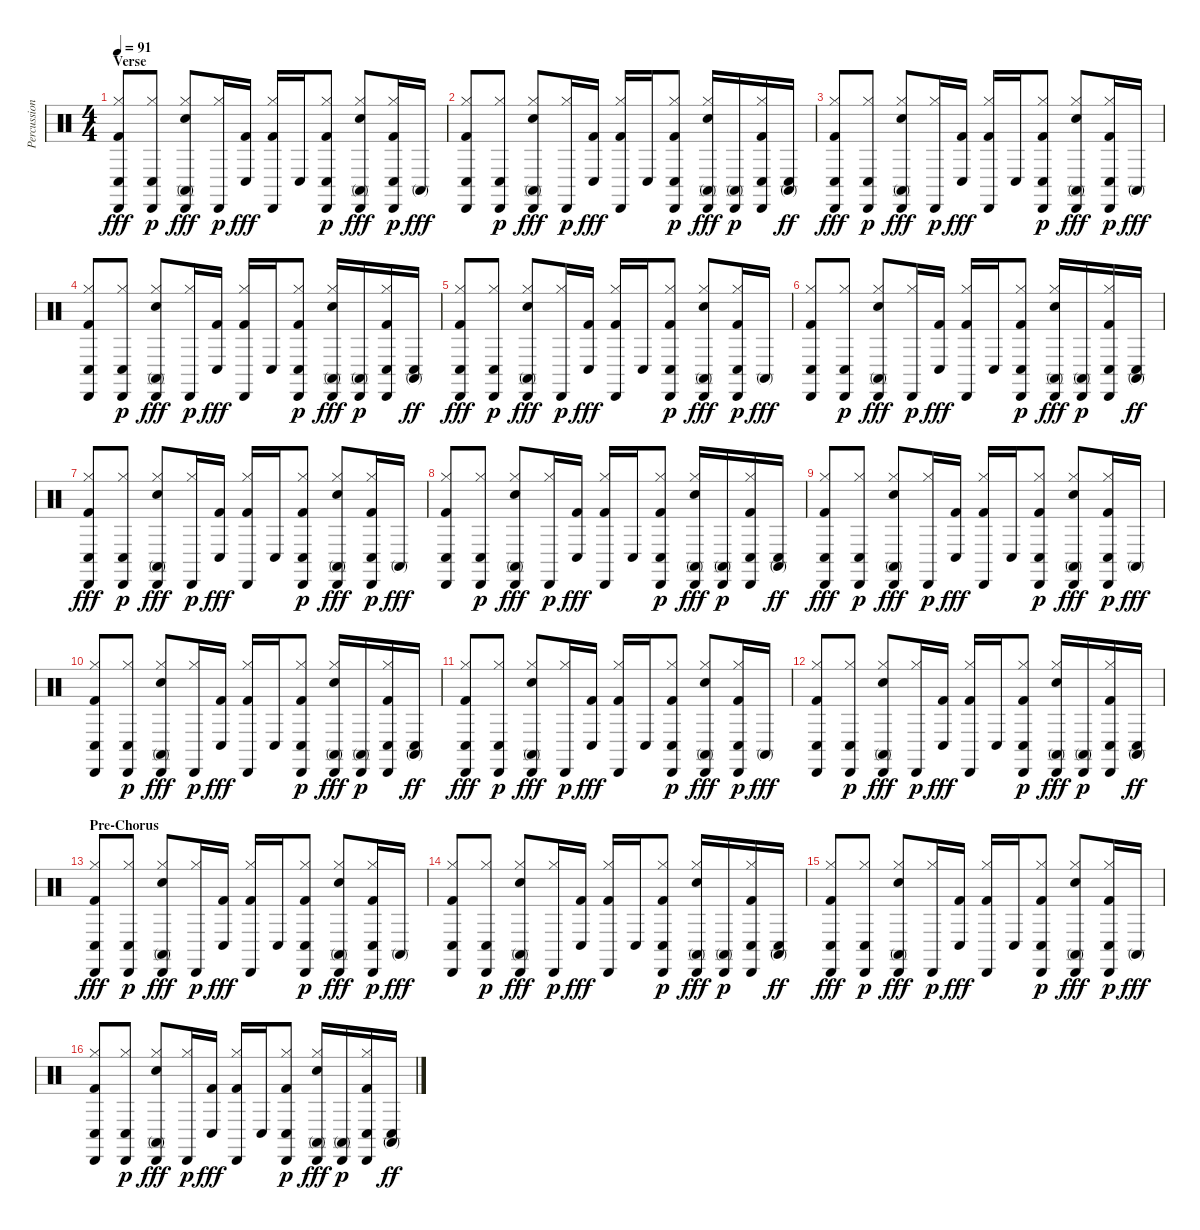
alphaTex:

\track ("Percussion" "Percussion") {instrument percussion}
\staff {score}
\articulation defaults
\ts (4 4)
\section ("" "Verse")
\tempo 91
\clef neutral
\ks c
("Kick (hit) 2" "Hi-Hat (closed)" "Conga low (hit)" "Cabasa (hit)").8{dy fff} ("Hi-Hat (closed)" "Conga low (hit)" "Cabasa (hit)").8{dy p} ("Snare (hit) 2" "Hi-Hat (closed)" "Conga high (mute)" "Cabasa (hit)").8{dy fff} ("Hi-Hat (closed)" "Cabasa (hit)").16{dy p} ("Kick (hit) 2" "Conga low (hit)").16{dy fff} ("Kick (hit) 2" "Hi-Hat (closed)" "Cabasa (hit)").16 "Conga low (hit)".16 ("Kick (hit) 2" "Hi-Hat (closed)" "Conga low (hit)" "Cabasa (hit)").8{dy p} ("Snare (hit) 2" "Hi-Hat (closed)" "Conga high (mute)" "Cabasa (hit)").8{dy fff} ("Kick (hit) 2" "Hi-Hat (closed)" "Conga low (hit)" "Cabasa (hit)").16{dy p} "Conga high (mute)".16{dy fff} |
("Kick (hit) 2" "Hi-Hat (closed)" "Conga low (hit)" "Cabasa (hit)").8 ("Hi-Hat (closed)" "Conga low (hit)" "Cabasa (hit)").8{dy p} ("Snare (hit) 2" "Hi-Hat (closed)" "Conga high (mute)" "Cabasa (hit)").8{dy fff} ("Hi-Hat (closed)" "Cabasa (hit)").16{dy p} ("Kick (hit) 2" "Conga low (hit)").16{dy fff} ("Kick (hit) 2" "Hi-Hat (closed)" "Cabasa (hit)").16 "Conga low (hit)".16 ("Kick (hit) 2" "Hi-Hat (closed)" "Conga low (hit)" "Cabasa (hit)").8{dy p} ("Snare (hit) 2" "Hi-Hat (closed)" "Conga high (mute)" "Cabasa (hit)").16{dy fff} ("Conga high (mute)" "Cabasa (hit)").16{dy p} ("Kick (hit) 2" "Hi-Hat (closed)" "Conga low (hit)" "Cabasa (hit)").16 ("Conga high (mute)" "Conga low (hit)").16{dy ff} |
("Kick (hit) 2" "Hi-Hat (closed)" "Conga low (hit)" "Cabasa (hit)").8{dy fff} ("Hi-Hat (closed)" "Conga low (hit)" "Cabasa (hit)").8{dy p} ("Snare (hit) 2" "Hi-Hat (closed)" "Conga high (mute)" "Cabasa (hit)").8{dy fff} ("Hi-Hat (closed)" "Cabasa (hit)").16{dy p} ("Kick (hit) 2" "Conga low (hit)").16{dy fff} ("Kick (hit) 2" "Hi-Hat (closed)" "Cabasa (hit)").16 "Conga low (hit)".16 ("Kick (hit) 2" "Hi-Hat (closed)" "Conga low (hit)" "Cabasa (hit)").8{dy p} ("Snare (hit) 2" "Hi-Hat (closed)" "Conga high (mute)" "Cabasa (hit)").8{dy fff} ("Kick (hit) 2" "Hi-Hat (closed)" "Conga low (hit)" "Cabasa (hit)").16{dy p} "Conga high (mute)".16{dy fff} |
("Kick (hit) 2" "Hi-Hat (closed)" "Conga low (hit)" "Cabasa (hit)").8 ("Hi-Hat (closed)" "Conga low (hit)" "Cabasa (hit)").8{dy p} ("Snare (hit) 2" "Hi-Hat (closed)" "Conga high (mute)" "Cabasa (hit)").8{dy fff} ("Hi-Hat (closed)" "Cabasa (hit)").16{dy p} ("Kick (hit) 2" "Conga low (hit)").16{dy fff} ("Kick (hit) 2" "Hi-Hat (closed)" "Cabasa (hit)").16 "Conga low (hit)".16 ("Kick (hit) 2" "Hi-Hat (closed)" "Conga low (hit)" "Cabasa (hit)").8{dy p} ("Snare (hit) 2" "Hi-Hat (closed)" "Conga high (mute)" "Cabasa (hit)").16{dy fff} ("Conga high (mute)" "Cabasa (hit)").16{dy p} ("Kick (hit) 2" "Hi-Hat (closed)" "Conga low (hit)" "Cabasa (hit)").16 ("Conga high (mute)" "Conga low (hit)").16{dy ff} |
("Kick (hit) 2" "Hi-Hat (closed)" "Conga low (hit)" "Cabasa (hit)").8{dy fff} ("Hi-Hat (closed)" "Conga low (hit)" "Cabasa (hit)").8{dy p} ("Snare (hit) 2" "Hi-Hat (closed)" "Conga high (mute)" "Cabasa (hit)").8{dy fff} ("Hi-Hat (closed)" "Cabasa (hit)").16{dy p} ("Kick (hit) 2" "Conga low (hit)").16{dy fff} ("Kick (hit) 2" "Hi-Hat (closed)" "Cabasa (hit)").16 "Conga low (hit)".16 ("Kick (hit) 2" "Hi-Hat (closed)" "Conga low (hit)" "Cabasa (hit)").8{dy p} ("Snare (hit) 2" "Hi-Hat (closed)" "Conga high (mute)" "Cabasa (hit)").8{dy fff} ("Kick (hit) 2" "Hi-Hat (closed)" "Conga low (hit)" "Cabasa (hit)").16{dy p} "Conga high (mute)".16{dy fff} |
("Kick (hit) 2" "Hi-Hat (closed)" "Conga low (hit)" "Cabasa (hit)").8 ("Hi-Hat (closed)" "Conga low (hit)" "Cabasa (hit)").8{dy p} ("Snare (hit) 2" "Hi-Hat (closed)" "Conga high (mute)" "Cabasa (hit)").8{dy fff} ("Hi-Hat (closed)" "Cabasa (hit)").16{dy p} ("Kick (hit) 2" "Conga low (hit)").16{dy fff} ("Kick (hit) 2" "Hi-Hat (closed)" "Cabasa (hit)").16 "Conga low (hit)".16 ("Kick (hit) 2" "Hi-Hat (closed)" "Conga low (hit)" "Cabasa (hit)").8{dy p} ("Snare (hit) 2" "Hi-Hat (closed)" "Conga high (mute)" "Cabasa (hit)").16{dy fff} ("Conga high (mute)" "Cabasa (hit)").16{dy p} ("Kick (hit) 2" "Hi-Hat (closed)" "Conga low (hit)" "Cabasa (hit)").16 ("Conga high (mute)" "Conga low (hit)").16{dy ff} |
("Kick (hit) 2" "Hi-Hat (closed)" "Conga low (hit)" "Cabasa (hit)").8{dy fff} ("Hi-Hat (closed)" "Conga low (hit)" "Cabasa (hit)").8{dy p} ("Snare (hit) 2" "Hi-Hat (closed)" "Conga high (mute)" "Cabasa (hit)").8{dy fff} ("Hi-Hat (closed)" "Cabasa (hit)").16{dy p} ("Kick (hit) 2" "Conga low (hit)").16{dy fff} ("Kick (hit) 2" "Hi-Hat (closed)" "Cabasa (hit)").16 "Conga low (hit)".16 ("Kick (hit) 2" "Hi-Hat (closed)" "Conga low (hit)" "Cabasa (hit)").8{dy p} ("Snare (hit) 2" "Hi-Hat (closed)" "Conga high (mute)" "Cabasa (hit)").8{dy fff} ("Kick (hit) 2" "Hi-Hat (closed)" "Conga low (hit)" "Cabasa (hit)").16{dy p} "Conga high (mute)".16{dy fff} |
("Kick (hit) 2" "Hi-Hat (closed)" "Conga low (hit)" "Cabasa (hit)").8 ("Hi-Hat (closed)" "Conga low (hit)" "Cabasa (hit)").8{dy p} ("Snare (hit) 2" "Hi-Hat (closed)" "Conga high (mute)" "Cabasa (hit)").8{dy fff} ("Hi-Hat (closed)" "Cabasa (hit)").16{dy p} ("Kick (hit) 2" "Conga low (hit)").16{dy fff} ("Kick (hit) 2" "Hi-Hat (closed)" "Cabasa (hit)").16 "Conga low (hit)".16 ("Kick (hit) 2" "Hi-Hat (closed)" "Conga low (hit)" "Cabasa (hit)").8{dy p} ("Snare (hit) 2" "Hi-Hat (closed)" "Conga high (mute)" "Cabasa (hit)").16{dy fff} ("Conga high (mute)" "Cabasa (hit)").16{dy p} ("Kick (hit) 2" "Hi-Hat (closed)" "Conga low (hit)" "Cabasa (hit)").16 ("Conga high (mute)" "Conga low (hit)").16{dy ff} |
("Kick (hit) 2" "Hi-Hat (closed)" "Conga low (hit)" "Cabasa (hit)").8{dy fff} ("Hi-Hat (closed)" "Conga low (hit)" "Cabasa (hit)").8{dy p} ("Snare (hit) 2" "Hi-Hat (closed)" "Conga high (mute)" "Cabasa (hit)").8{dy fff} ("Hi-Hat (closed)" "Cabasa (hit)").16{dy p} ("Kick (hit) 2" "Conga low (hit)").16{dy fff} ("Kick (hit) 2" "Hi-Hat (closed)" "Cabasa (hit)").16 "Conga low (hit)".16 ("Kick (hit) 2" "Hi-Hat (closed)" "Conga low (hit)" "Cabasa (hit)").8{dy p} ("Snare (hit) 2" "Hi-Hat (closed)" "Conga high (mute)" "Cabasa (hit)").8{dy fff} ("Kick (hit) 2" "Hi-Hat (closed)" "Conga low (hit)" "Cabasa (hit)").16{dy p} "Conga high (mute)".16{dy fff} |
("Kick (hit) 2" "Hi-Hat (closed)" "Conga low (hit)" "Cabasa (hit)").8 ("Hi-Hat (closed)" "Conga low (hit)" "Cabasa (hit)").8{dy p} ("Snare (hit) 2" "Hi-Hat (closed)" "Conga high (mute)" "Cabasa (hit)").8{dy fff} ("Hi-Hat (closed)" "Cabasa (hit)").16{dy p} ("Kick (hit) 2" "Conga low (hit)").16{dy fff} ("Kick (hit) 2" "Hi-Hat (closed)" "Cabasa (hit)").16 "Conga low (hit)".16 ("Kick (hit) 2" "Hi-Hat (closed)" "Conga low (hit)" "Cabasa (hit)").8{dy p} ("Snare (hit) 2" "Hi-Hat (closed)" "Conga high (mute)" "Cabasa (hit)").16{dy fff} ("Conga high (mute)" "Cabasa (hit)").16{dy p} ("Kick (hit) 2" "Hi-Hat (closed)" "Conga low (hit)" "Cabasa (hit)").16 ("Conga high (mute)" "Conga low (hit)").16{dy ff} |
("Kick (hit) 2" "Hi-Hat (closed)" "Conga low (hit)" "Cabasa (hit)").8{dy fff} ("Hi-Hat (closed)" "Conga low (hit)" "Cabasa (hit)").8{dy p} ("Snare (hit) 2" "Hi-Hat (closed)" "Conga high (mute)" "Cabasa (hit)").8{dy fff} ("Hi-Hat (closed)" "Cabasa (hit)").16{dy p} ("Kick (hit) 2" "Conga low (hit)").16{dy fff} ("Kick (hit) 2" "Hi-Hat (closed)" "Cabasa (hit)").16 "Conga low (hit)".16 ("Kick (hit) 2" "Hi-Hat (closed)" "Conga low (hit)" "Cabasa (hit)").8{dy p} ("Snare (hit) 2" "Hi-Hat (closed)" "Conga high (mute)" "Cabasa (hit)").8{dy fff} ("Kick (hit) 2" "Hi-Hat (closed)" "Conga low (hit)" "Cabasa (hit)").16{dy p} "Conga high (mute)".16{dy fff} |
("Kick (hit) 2" "Hi-Hat (closed)" "Conga low (hit)" "Cabasa (hit)").8 ("Hi-Hat (closed)" "Conga low (hit)" "Cabasa (hit)").8{dy p} ("Snare (hit) 2" "Hi-Hat (closed)" "Conga high (mute)" "Cabasa (hit)").8{dy fff} ("Hi-Hat (closed)" "Cabasa (hit)").16{dy p} ("Kick (hit) 2" "Conga low (hit)").16{dy fff} ("Kick (hit) 2" "Hi-Hat (closed)" "Cabasa (hit)").16 "Conga low (hit)".16 ("Kick (hit) 2" "Hi-Hat (closed)" "Conga low (hit)" "Cabasa (hit)").8{dy p} ("Snare (hit) 2" "Hi-Hat (closed)" "Conga high (mute)" "Cabasa (hit)").16{dy fff} ("Conga high (mute)" "Cabasa (hit)").16{dy p} ("Kick (hit) 2" "Hi-Hat (closed)" "Conga low (hit)" "Cabasa (hit)").16 ("Conga high (mute)" "Conga low (hit)").16{dy ff} |
\section ("" "Pre-Chorus")
("Kick (hit) 2" "Hi-Hat (closed)" "Conga low (hit)" "Cabasa (hit)").8{dy fff} ("Hi-Hat (closed)" "Conga low (hit)" "Cabasa (hit)").8{dy p} ("Snare (hit) 2" "Hi-Hat (closed)" "Conga high (mute)" "Cabasa (hit)").8{dy fff} ("Hi-Hat (closed)" "Cabasa (hit)").16{dy p} ("Kick (hit) 2" "Conga low (hit)").16{dy fff} ("Kick (hit) 2" "Hi-Hat (closed)" "Cabasa (hit)").16 "Conga low (hit)".16 ("Kick (hit) 2" "Hi-Hat (closed)" "Conga low (hit)" "Cabasa (hit)").8{dy p} ("Snare (hit) 2" "Hi-Hat (closed)" "Conga high (mute)" "Cabasa (hit)").8{dy fff} ("Kick (hit) 2" "Hi-Hat (closed)" "Conga low (hit)" "Cabasa (hit)").16{dy p} "Conga high (mute)".16{dy fff} |
("Kick (hit) 2" "Hi-Hat (closed)" "Conga low (hit)" "Cabasa (hit)").8 ("Hi-Hat (closed)" "Conga low (hit)" "Cabasa (hit)").8{dy p} ("Snare (hit) 2" "Hi-Hat (closed)" "Conga high (mute)" "Cabasa (hit)").8{dy fff} ("Hi-Hat (closed)" "Cabasa (hit)").16{dy p} ("Kick (hit) 2" "Conga low (hit)").16{dy fff} ("Kick (hit) 2" "Hi-Hat (closed)" "Cabasa (hit)").16 "Conga low (hit)".16 ("Kick (hit) 2" "Hi-Hat (closed)" "Conga low (hit)" "Cabasa (hit)").8{dy p} ("Snare (hit) 2" "Hi-Hat (closed)" "Conga high (mute)" "Cabasa (hit)").16{dy fff} ("Conga high (mute)" "Cabasa (hit)").16{dy p} ("Kick (hit) 2" "Hi-Hat (closed)" "Conga low (hit)" "Cabasa (hit)").16 ("Conga high (mute)" "Conga low (hit)").16{dy ff} |
("Kick (hit) 2" "Hi-Hat (closed)" "Conga low (hit)" "Cabasa (hit)").8{dy fff} ("Hi-Hat (closed)" "Conga low (hit)" "Cabasa (hit)").8{dy p} ("Snare (hit) 2" "Hi-Hat (closed)" "Conga high (mute)" "Cabasa (hit)").8{dy fff} ("Hi-Hat (closed)" "Cabasa (hit)").16{dy p} ("Kick (hit) 2" "Conga low (hit)").16{dy fff} ("Kick (hit) 2" "Hi-Hat (closed)" "Cabasa (hit)").16 "Conga low (hit)".16 ("Kick (hit) 2" "Hi-Hat (closed)" "Conga low (hit)" "Cabasa (hit)").8{dy p} ("Snare (hit) 2" "Hi-Hat (closed)" "Conga high (mute)" "Cabasa (hit)").8{dy fff} ("Kick (hit) 2" "Hi-Hat (closed)" "Conga low (hit)" "Cabasa (hit)").16{dy p} "Conga high (mute)".16{dy fff} |
("Kick (hit) 2" "Hi-Hat (closed)" "Conga low (hit)" "Cabasa (hit)").8 ("Hi-Hat (closed)" "Conga low (hit)" "Cabasa (hit)").8{dy p} ("Snare (hit) 2" "Hi-Hat (closed)" "Conga high (mute)" "Cabasa (hit)").8{dy fff} ("Hi-Hat (closed)" "Cabasa (hit)").16{dy p} ("Kick (hit) 2" "Conga low (hit)").16{dy fff} ("Kick (hit) 2" "Hi-Hat (closed)" "Cabasa (hit)").16 "Conga low (hit)".16 ("Kick (hit) 2" "Hi-Hat (closed)" "Conga low (hit)" "Cabasa (hit)").8{dy p} ("Snare (hit) 2" "Hi-Hat (closed)" "Conga high (mute)" "Cabasa (hit)").16{dy fff} ("Conga high (mute)" "Cabasa (hit)").16{dy p} ("Kick (hit) 2" "Hi-Hat (closed)" "Conga low (hit)" "Cabasa (hit)").16 ("Conga high (mute)" "Conga low (hit)").16{dy ff}
